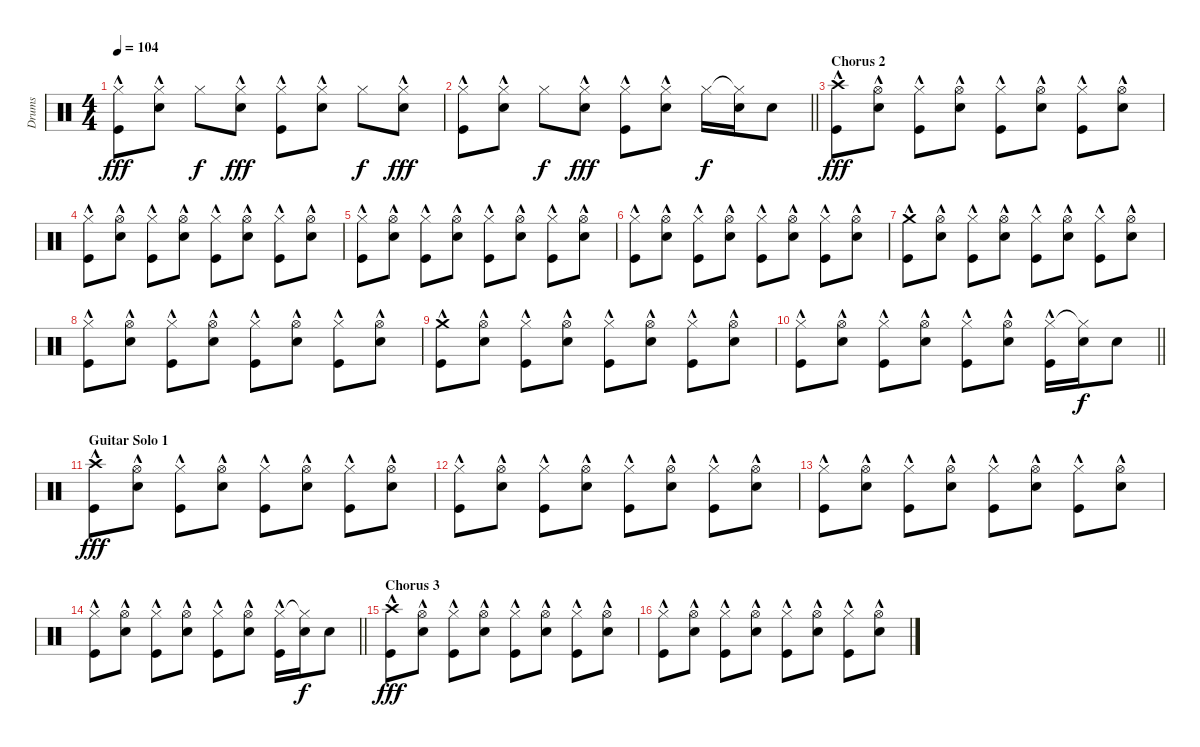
\track ("Drums" "Drums") {instrument percussion}
\staff {score}
\articulation defaults
\ts (4 4)
\tempo 104
\clef neutral
\ks c
("Hi-Hat (closed)" "Kick (hit)"{hac}).8{dy fff} ("Hi-Hat (closed)"{hac} "Snare (hit) 2"{hac}).8 "Hi-Hat (closed)".8{dy f} ("Hi-Hat (closed)"{hac} "Snare (hit) 2"{hac}).8{dy fff} ("Hi-Hat (closed)" "Kick (hit)"{hac}).8 ("Hi-Hat (closed)"{hac} "Snare (hit) 2"{hac}).8 "Hi-Hat (closed)".8{dy f} ("Hi-Hat (closed)"{hac} "Snare (hit) 2"{hac}).8{dy fff} |
\barLineRight lightlight
("Hi-Hat (closed)" "Kick (hit)"{hac}).8 ("Hi-Hat (closed)"{hac} "Snare (hit) 2"{hac}).8 "Hi-Hat (closed)".8{dy f} ("Hi-Hat (closed)"{hac} "Snare (hit) 2"{hac}).8{dy fff} ("Hi-Hat (closed)" "Kick (hit)"{hac}).8 ("Hi-Hat (closed)"{hac} "Snare (hit) 2"{hac}).8 "Hi-Hat (closed)".16{dy f} ("Hi-Hat (closed)"{t} "Snare (hit) 2").16 "Snare (hit) 2".8 |
\section ("" "Chorus 2")
("Crash high (hit)"{hac} "Kick (hit)"{hac}).8{dy fff} ("Hi-Hat (open)"{hac} "Snare (hit) 2"{hac}).8 ("Hi-Hat (closed)" "Kick (hit)"{hac}).8 ("Hi-Hat (open)"{hac} "Snare (hit) 2"{hac}).8 ("Hi-Hat (closed)" "Kick (hit)"{hac}).8 ("Hi-Hat (open)"{hac} "Snare (hit) 2"{hac}).8 ("Hi-Hat (closed)" "Kick (hit)"{hac}).8 ("Hi-Hat (open)"{hac} "Snare (hit) 2"{hac}).8 |
("Hi-Hat (closed)" "Kick (hit)"{hac}).8 ("Hi-Hat (open)"{hac} "Snare (hit) 2"{hac}).8 ("Hi-Hat (closed)" "Kick (hit)"{hac}).8 ("Hi-Hat (open)"{hac} "Snare (hit) 2"{hac}).8 ("Hi-Hat (closed)" "Kick (hit)"{hac}).8 ("Hi-Hat (open)"{hac} "Snare (hit) 2"{hac}).8 ("Hi-Hat (closed)" "Kick (hit)"{hac}).8 ("Hi-Hat (open)"{hac} "Snare (hit) 2"{hac}).8 |
("Hi-Hat (closed)" "Kick (hit)"{hac}).8 ("Hi-Hat (open)"{hac} "Snare (hit) 2"{hac}).8 ("Hi-Hat (closed)" "Kick (hit)"{hac}).8 ("Hi-Hat (open)"{hac} "Snare (hit) 2"{hac}).8 ("Hi-Hat (closed)" "Kick (hit)"{hac}).8 ("Hi-Hat (open)"{hac} "Snare (hit) 2"{hac}).8 ("Hi-Hat (closed)" "Kick (hit)"{hac}).8 ("Hi-Hat (open)"{hac} "Snare (hit) 2"{hac}).8 |
("Hi-Hat (closed)" "Kick (hit)"{hac}).8 ("Hi-Hat (open)"{hac} "Snare (hit) 2"{hac}).8 ("Hi-Hat (closed)" "Kick (hit)"{hac}).8 ("Hi-Hat (open)"{hac} "Snare (hit) 2"{hac}).8 ("Hi-Hat (closed)" "Kick (hit)"{hac}).8 ("Hi-Hat (open)"{hac} "Snare (hit) 2"{hac}).8 ("Hi-Hat (closed)" "Kick (hit)"{hac}).8 ("Hi-Hat (open)"{hac} "Snare (hit) 2"{hac}).8 |
("Crash medium (hit)"{hac} "Kick (hit)"{hac}).8 ("Hi-Hat (open)"{hac} "Snare (hit) 2"{hac}).8 ("Hi-Hat (closed)" "Kick (hit)"{hac}).8 ("Hi-Hat (open)"{hac} "Snare (hit) 2"{hac}).8 ("Hi-Hat (closed)" "Kick (hit)"{hac}).8 ("Hi-Hat (open)"{hac} "Snare (hit) 2"{hac}).8 ("Hi-Hat (closed)" "Kick (hit)"{hac}).8 ("Hi-Hat (open)"{hac} "Snare (hit) 2"{hac}).8 |
("Hi-Hat (closed)" "Kick (hit)"{hac}).8 ("Hi-Hat (open)"{hac} "Snare (hit) 2"{hac}).8 ("Hi-Hat (closed)" "Kick (hit)"{hac}).8 ("Hi-Hat (open)"{hac} "Snare (hit) 2"{hac}).8 ("Hi-Hat (closed)" "Kick (hit)"{hac}).8 ("Hi-Hat (open)"{hac} "Snare (hit) 2"{hac}).8 ("Hi-Hat (closed)" "Kick (hit)"{hac}).8 ("Hi-Hat (open)"{hac} "Snare (hit) 2"{hac}).8 |
("Crash medium (hit)"{hac} "Kick (hit)"{hac}).8 ("Hi-Hat (open)"{hac} "Snare (hit) 2"{hac}).8 ("Hi-Hat (closed)" "Kick (hit)"{hac}).8 ("Hi-Hat (open)"{hac} "Snare (hit) 2"{hac}).8 ("Hi-Hat (closed)" "Kick (hit)"{hac}).8 ("Hi-Hat (open)"{hac} "Snare (hit) 2"{hac}).8 ("Hi-Hat (closed)" "Kick (hit)"{hac}).8 ("Hi-Hat (open)"{hac} "Snare (hit) 2"{hac}).8 |
\barLineRight lightlight
("Hi-Hat (closed)" "Kick (hit)"{hac}).8 ("Hi-Hat (open)"{hac} "Snare (hit) 2"{hac}).8 ("Hi-Hat (closed)" "Kick (hit)"{hac}).8 ("Hi-Hat (open)"{hac} "Snare (hit) 2"{hac}).8 ("Hi-Hat (closed)" "Kick (hit)"{hac}).8 ("Hi-Hat (open)"{hac} "Snare (hit) 2"{hac}).8 ("Hi-Hat (closed)" "Kick (hit)"{hac}).16 ("Hi-Hat (closed)"{t} "Snare (hit) 2").16{dy f} "Snare (hit) 2".8 |
\section ("" "Guitar Solo 1")
("Crash high (hit)"{hac} "Kick (hit)"{hac}).8{dy fff} ("Hi-Hat (open)"{hac} "Snare (hit) 2"{hac}).8 ("Hi-Hat (closed)" "Kick (hit)"{hac}).8 ("Hi-Hat (open)"{hac} "Snare (hit) 2"{hac}).8 ("Hi-Hat (closed)" "Kick (hit)"{hac}).8 ("Hi-Hat (open)"{hac} "Snare (hit) 2"{hac}).8 ("Hi-Hat (closed)" "Kick (hit)"{hac}).8 ("Hi-Hat (open)"{hac} "Snare (hit) 2"{hac}).8 |
("Hi-Hat (closed)" "Kick (hit)"{hac}).8 ("Hi-Hat (open)"{hac} "Snare (hit) 2"{hac}).8 ("Hi-Hat (closed)" "Kick (hit)"{hac}).8 ("Hi-Hat (open)"{hac} "Snare (hit) 2"{hac}).8 ("Hi-Hat (closed)" "Kick (hit)"{hac}).8 ("Hi-Hat (open)"{hac} "Snare (hit) 2"{hac}).8 ("Hi-Hat (closed)" "Kick (hit)"{hac}).8 ("Hi-Hat (open)"{hac} "Snare (hit) 2"{hac}).8 |
("Hi-Hat (closed)" "Kick (hit)"{hac}).8 ("Hi-Hat (open)"{hac} "Snare (hit) 2"{hac}).8 ("Hi-Hat (closed)" "Kick (hit)"{hac}).8 ("Hi-Hat (open)"{hac} "Snare (hit) 2"{hac}).8 ("Hi-Hat (closed)" "Kick (hit)"{hac}).8 ("Hi-Hat (open)"{hac} "Snare (hit) 2"{hac}).8 ("Hi-Hat (closed)" "Kick (hit)"{hac}).8 ("Hi-Hat (open)"{hac} "Snare (hit) 2"{hac}).8 |
\barLineRight lightlight
("Hi-Hat (closed)" "Kick (hit)"{hac}).8 ("Hi-Hat (open)"{hac} "Snare (hit) 2"{hac}).8 ("Hi-Hat (closed)" "Kick (hit)"{hac}).8 ("Hi-Hat (open)"{hac} "Snare (hit) 2"{hac}).8 ("Hi-Hat (closed)" "Kick (hit)"{hac}).8 ("Hi-Hat (open)"{hac} "Snare (hit) 2"{hac}).8 ("Hi-Hat (closed)" "Kick (hit)"{hac}).16 ("Hi-Hat (closed)"{t} "Snare (hit) 2").16{dy f} "Snare (hit) 2".8 |
\section ("" "Chorus 3")
("Crash high (hit)"{hac} "Kick (hit)"{hac}).8{dy fff} ("Hi-Hat (open)"{hac} "Snare (hit) 2"{hac}).8 ("Hi-Hat (closed)" "Kick (hit)"{hac}).8 ("Hi-Hat (open)"{hac} "Snare (hit) 2"{hac}).8 ("Hi-Hat (closed)" "Kick (hit)"{hac}).8 ("Hi-Hat (open)"{hac} "Snare (hit) 2"{hac}).8 ("Hi-Hat (closed)" "Kick (hit)"{hac}).8 ("Hi-Hat (open)"{hac} "Snare (hit) 2"{hac}).8 |
("Hi-Hat (closed)" "Kick (hit)"{hac}).8 ("Hi-Hat (open)"{hac} "Snare (hit) 2"{hac}).8 ("Hi-Hat (closed)" "Kick (hit)"{hac}).8 ("Hi-Hat (open)"{hac} "Snare (hit) 2"{hac}).8 ("Hi-Hat (closed)" "Kick (hit)"{hac}).8 ("Hi-Hat (open)"{hac} "Snare (hit) 2"{hac}).8 ("Hi-Hat (closed)" "Kick (hit)"{hac}).8 ("Hi-Hat (open)"{hac} "Snare (hit) 2"{hac}).8
